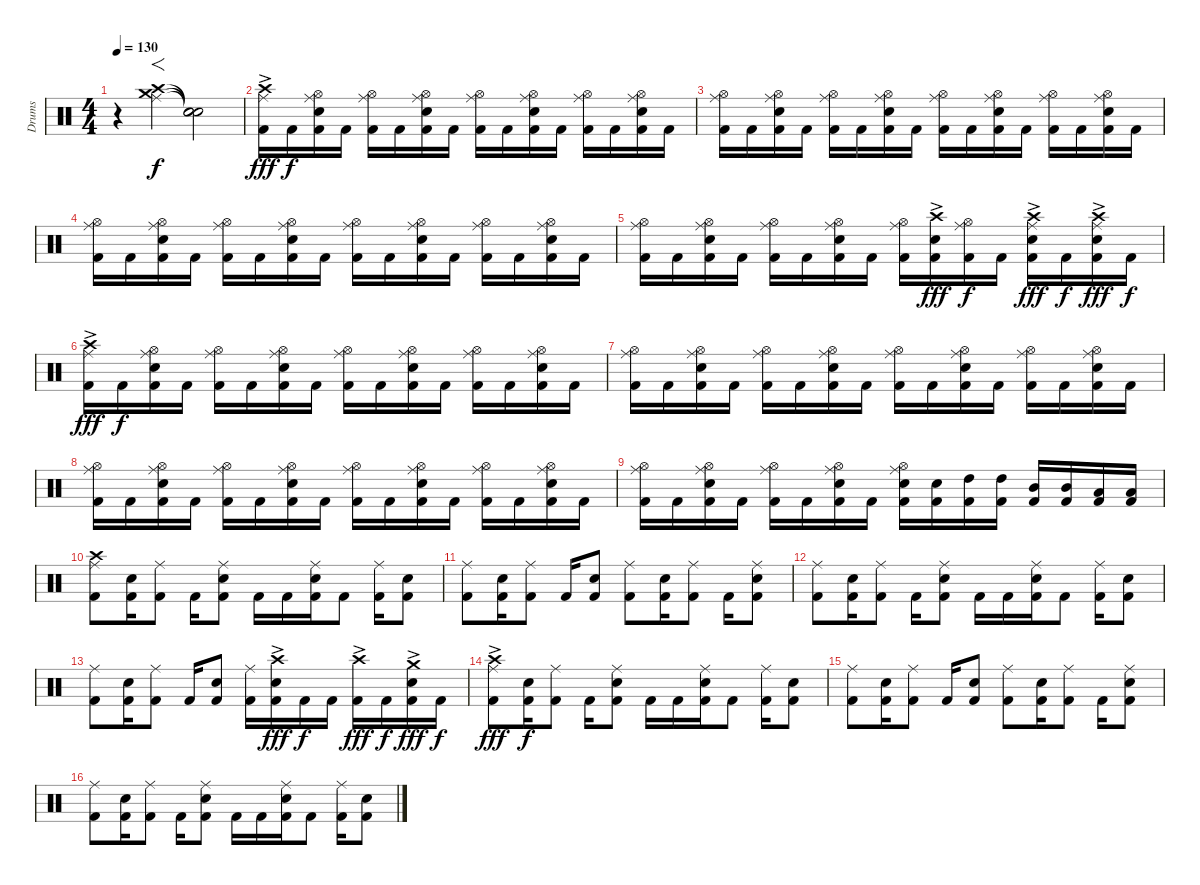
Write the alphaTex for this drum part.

\track ("Drums" "Drums") {instrument percussion}
\staff {score}
\articulation defaults
\ts (4 4)
\tempo 130
\clef neutral
\ks c
r.4{dy f} ("Crash high (hit)" "Crash medium (hit)" "Ride (middle)").4{f} ("Snare (hit)"{t} "Snare (hit)"{t} "Snare (hit)"{t}).2 |
("Crash high (hit)"{ac} "Ride (middle)" "Kick (hit) 2").16{dy fff} "Kick (hit) 2".16{dy f} ("Hi-Hat (open)" "Ride (middle)" "Snare (hit) 2" "Kick (hit) 2").16 "Kick (hit) 2".16 ("Hi-Hat (open)" "Ride (middle)" "Kick (hit) 2").16 "Kick (hit) 2".16 ("Hi-Hat (open)" "Ride (middle)" "Snare (hit) 2" "Kick (hit) 2").16 "Kick (hit) 2".16 ("Hi-Hat (open)" "Ride (middle)" "Kick (hit) 2").16 "Kick (hit) 2".16 ("Hi-Hat (open)" "Ride (middle)" "Snare (hit) 2" "Kick (hit) 2").16 "Kick (hit) 2".16 ("Hi-Hat (open)" "Ride (middle)" "Kick (hit) 2").16 "Kick (hit) 2".16 ("Hi-Hat (open)" "Ride (middle)" "Snare (hit) 2" "Kick (hit) 2").16 "Kick (hit) 2".16 |
("Hi-Hat (open)" "Ride (middle)" "Kick (hit) 2").16 "Kick (hit) 2".16 ("Hi-Hat (open)" "Ride (middle)" "Snare (hit) 2" "Kick (hit) 2").16 "Kick (hit) 2".16 ("Hi-Hat (open)" "Ride (middle)" "Kick (hit) 2").16 "Kick (hit) 2".16 ("Hi-Hat (open)" "Ride (middle)" "Snare (hit) 2" "Kick (hit) 2").16 "Kick (hit) 2".16 ("Hi-Hat (open)" "Ride (middle)" "Kick (hit) 2").16 "Kick (hit) 2".16 ("Hi-Hat (open)" "Ride (middle)" "Snare (hit) 2" "Kick (hit) 2").16 "Kick (hit) 2".16 ("Hi-Hat (open)" "Ride (middle)" "Kick (hit) 2").16 "Kick (hit) 2".16 ("Hi-Hat (open)" "Ride (middle)" "Snare (hit) 2" "Kick (hit) 2").16 "Kick (hit) 2".16 |
("Hi-Hat (open)" "Ride (middle)" "Kick (hit) 2").16 "Kick (hit) 2".16 ("Hi-Hat (open)" "Ride (middle)" "Snare (hit) 2" "Kick (hit) 2").16 "Kick (hit) 2".16 ("Hi-Hat (open)" "Ride (middle)" "Kick (hit) 2").16 "Kick (hit) 2".16 ("Hi-Hat (open)" "Ride (middle)" "Snare (hit) 2" "Kick (hit) 2").16 "Kick (hit) 2".16 ("Hi-Hat (open)" "Ride (middle)" "Kick (hit) 2").16 "Kick (hit) 2".16 ("Hi-Hat (open)" "Ride (middle)" "Snare (hit) 2" "Kick (hit) 2").16 "Kick (hit) 2".16 ("Hi-Hat (open)" "Ride (middle)" "Kick (hit) 2").16 "Kick (hit) 2".16 ("Hi-Hat (open)" "Ride (middle)" "Snare (hit) 2" "Kick (hit) 2").16 "Kick (hit) 2".16 |
("Hi-Hat (open)" "Ride (middle)" "Kick (hit) 2").16 "Kick (hit) 2".16 ("Hi-Hat (open)" "Ride (middle)" "Snare (hit) 2" "Kick (hit) 2").16 "Kick (hit) 2".16 ("Hi-Hat (open)" "Ride (middle)" "Kick (hit) 2").16 "Kick (hit) 2".16 ("Hi-Hat (open)" "Ride (middle)" "Snare (hit) 2" "Kick (hit) 2").16 "Kick (hit) 2".16 ("Hi-Hat (open)" "Ride (middle)" "Kick (hit) 2").16 ("Crash high (hit)"{ac} "Snare (hit) 2" "Kick (hit) 2").16{dy fff} ("Hi-Hat (open)" "Ride (middle)" "Kick (hit) 2").16{dy f} "Kick (hit) 2".16 ("Crash high (hit)"{ac} "Ride (middle)" "Snare (hit) 2" "Kick (hit) 2").16{dy fff} "Kick (hit) 2".16{dy f} ("Crash high (hit)"{ac} "Ride (middle)" "Snare (hit) 2" "Kick (hit) 2").16{dy fff} "Kick (hit) 2".16{dy f} |
("Crash high (hit)"{ac} "Ride (middle)" "Kick (hit) 2").16{dy fff} "Kick (hit) 2".16{dy f} ("Hi-Hat (open)" "Ride (middle)" "Snare (hit) 2" "Kick (hit) 2").16 "Kick (hit) 2".16 ("Hi-Hat (open)" "Ride (middle)" "Kick (hit) 2").16 "Kick (hit) 2".16 ("Hi-Hat (open)" "Ride (middle)" "Snare (hit) 2" "Kick (hit) 2").16 "Kick (hit) 2".16 ("Hi-Hat (open)" "Ride (middle)" "Kick (hit) 2").16 "Kick (hit) 2".16 ("Hi-Hat (open)" "Ride (middle)" "Snare (hit) 2" "Kick (hit) 2").16 "Kick (hit) 2".16 ("Hi-Hat (open)" "Ride (middle)" "Kick (hit) 2").16 "Kick (hit) 2".16 ("Hi-Hat (open)" "Ride (middle)" "Snare (hit) 2" "Kick (hit) 2").16 "Kick (hit) 2".16 |
("Hi-Hat (open)" "Ride (middle)" "Kick (hit) 2").16 "Kick (hit) 2".16 ("Hi-Hat (open)" "Ride (middle)" "Snare (hit) 2" "Kick (hit) 2").16 "Kick (hit) 2".16 ("Hi-Hat (open)" "Ride (middle)" "Kick (hit) 2").16 "Kick (hit) 2".16 ("Hi-Hat (open)" "Ride (middle)" "Snare (hit) 2" "Kick (hit) 2").16 "Kick (hit) 2".16 ("Hi-Hat (open)" "Ride (middle)" "Kick (hit) 2").16 "Kick (hit) 2".16 ("Hi-Hat (open)" "Ride (middle)" "Snare (hit) 2" "Kick (hit) 2").16 "Kick (hit) 2".16 ("Hi-Hat (open)" "Ride (middle)" "Kick (hit) 2").16 "Kick (hit) 2".16 ("Hi-Hat (open)" "Ride (middle)" "Snare (hit) 2" "Kick (hit) 2").16 "Kick (hit) 2".16 |
("Hi-Hat (open)" "Ride (middle)" "Kick (hit) 2").16 "Kick (hit) 2".16 ("Hi-Hat (open)" "Ride (middle)" "Snare (hit) 2" "Kick (hit) 2").16 "Kick (hit) 2".16 ("Hi-Hat (open)" "Ride (middle)" "Kick (hit) 2").16 "Kick (hit) 2".16 ("Hi-Hat (open)" "Ride (middle)" "Snare (hit) 2" "Kick (hit) 2").16 "Kick (hit) 2".16 ("Hi-Hat (open)" "Ride (middle)" "Kick (hit) 2").16 "Kick (hit) 2".16 ("Hi-Hat (open)" "Ride (middle)" "Snare (hit) 2" "Kick (hit) 2").16 "Kick (hit) 2".16 ("Hi-Hat (open)" "Ride (middle)" "Kick (hit) 2").16 "Kick (hit) 2".16 ("Hi-Hat (open)" "Ride (middle)" "Snare (hit) 2" "Kick (hit) 2").16 "Kick (hit) 2".16 |
("Hi-Hat (open)" "Ride (middle)" "Kick (hit) 2").16 "Kick (hit) 2".16 ("Hi-Hat (open)" "Ride (middle)" "Snare (hit) 2" "Kick (hit) 2").16 "Kick (hit) 2".16 ("Hi-Hat (open)" "Ride (middle)" "Kick (hit) 2").16 "Kick (hit) 2".16 ("Hi-Hat (open)" "Ride (middle)" "Snare (hit) 2" "Kick (hit) 2").16 "Kick (hit) 2".16 ("Hi-Hat (open)" "Ride (middle)" "Snare (hit) 2" "Kick (hit) 2").16 ("Snare (hit) 2" "Kick (hit) 2").16 ("High Tom (hit)" "Kick (hit) 2").16 ("High Tom (hit)" "Kick (hit) 2").16 ("Mid Tom (hit)" "Kick (hit) 2").16 ("Mid Tom (hit)" "Kick (hit) 2").16 ("Low Tom (hit)" "Kick (hit) 2").16 ("Low Tom (hit)" "Kick (hit) 2").16 |
("Crash high (hit)" "Ride (middle)" "Kick (hit) 2").8 ("Snare (hit) 2" "Kick (hit) 2").16 ("Ride (middle)" "Kick (hit) 2").8 "Kick (hit) 2".16 ("Ride (middle)" "Snare (hit) 2" "Kick (hit) 2").8 "Kick (hit) 2".16 "Kick (hit) 2".16 ("Ride (middle)" "Snare (hit) 2" "Kick (hit) 2").16 "Kick (hit) 2".8 ("Ride (middle)" "Kick (hit) 2").16 ("Snare (hit) 2" "Kick (hit) 2").8 |
("Ride (middle)" "Kick (hit) 2").8 ("Snare (hit) 2" "Kick (hit) 2").16 ("Ride (middle)" "Kick (hit) 2").8 "Kick (hit) 2".16 ("Snare (hit) 2" "Kick (hit) 2").8 ("Ride (middle)" "Kick (hit) 2").8 ("Snare (hit) 2" "Kick (hit) 2").16 ("Ride (middle)" "Kick (hit) 2").8 "Kick (hit) 2".16 ("Ride (middle)" "Snare (hit) 2" "Kick (hit) 2").8 |
("Ride (middle)" "Kick (hit) 2").8 ("Snare (hit) 2" "Kick (hit) 2").16 ("Ride (middle)" "Kick (hit) 2").8 "Kick (hit) 2".16 ("Ride (middle)" "Snare (hit) 2" "Kick (hit) 2").8 "Kick (hit) 2".16 "Kick (hit) 2".16 ("Ride (middle)" "Snare (hit) 2" "Kick (hit) 2").16 "Kick (hit) 2".8 ("Ride (middle)" "Kick (hit) 2").16 ("Snare (hit) 2" "Kick (hit) 2").8 |
("Ride (middle)" "Kick (hit) 2").8 ("Snare (hit) 2" "Kick (hit) 2").16 ("Ride (middle)" "Kick (hit) 2").8 "Kick (hit) 2".16 ("Snare (hit) 2" "Kick (hit) 2").8 ("Ride (middle)" "Kick (hit) 2").16 ("Crash high (hit)"{ac} "Snare (hit) 2" "Kick (hit) 2").16{dy fff} "Kick (hit) 2".16{dy f} "Kick (hit) 2".16 ("Crash high (hit)"{ac} "Kick (hit) 2").16{dy fff} "Kick (hit) 2".16{dy f} ("Crash medium (hit)"{ac} "Snare (hit) 2" "Kick (hit) 2").16{dy fff} "Kick (hit) 2".16{dy f} |
("Crash high (hit)"{ac} "Ride (middle)" "Kick (hit) 2").8{dy fff} ("Snare (hit) 2" "Kick (hit) 2").16{dy f} ("Ride (middle)" "Kick (hit) 2").8 "Kick (hit) 2".16 ("Ride (middle)" "Snare (hit) 2" "Kick (hit) 2").8 "Kick (hit) 2".16 "Kick (hit) 2".16 ("Ride (middle)" "Snare (hit) 2" "Kick (hit) 2").16 "Kick (hit) 2".8 ("Ride (middle)" "Kick (hit) 2").16 ("Snare (hit) 2" "Kick (hit) 2").8 |
("Ride (middle)" "Kick (hit) 2").8 ("Snare (hit) 2" "Kick (hit) 2").16 ("Ride (middle)" "Kick (hit) 2").8 "Kick (hit) 2".16 ("Snare (hit) 2" "Kick (hit) 2").8 ("Ride (middle)" "Kick (hit) 2").8 ("Snare (hit) 2" "Kick (hit) 2").16 ("Ride (middle)" "Kick (hit) 2").8 "Kick (hit) 2".16 ("Ride (middle)" "Snare (hit) 2" "Kick (hit) 2").8 |
("Ride (middle)" "Kick (hit) 2").8 ("Snare (hit) 2" "Kick (hit) 2").16 ("Ride (middle)" "Kick (hit) 2").8 "Kick (hit) 2".16 ("Ride (middle)" "Snare (hit) 2" "Kick (hit) 2").8 "Kick (hit) 2".16 "Kick (hit) 2".16 ("Ride (middle)" "Snare (hit) 2" "Kick (hit) 2").16 "Kick (hit) 2".8 ("Ride (middle)" "Kick (hit) 2").16 ("Snare (hit) 2" "Kick (hit) 2").8
